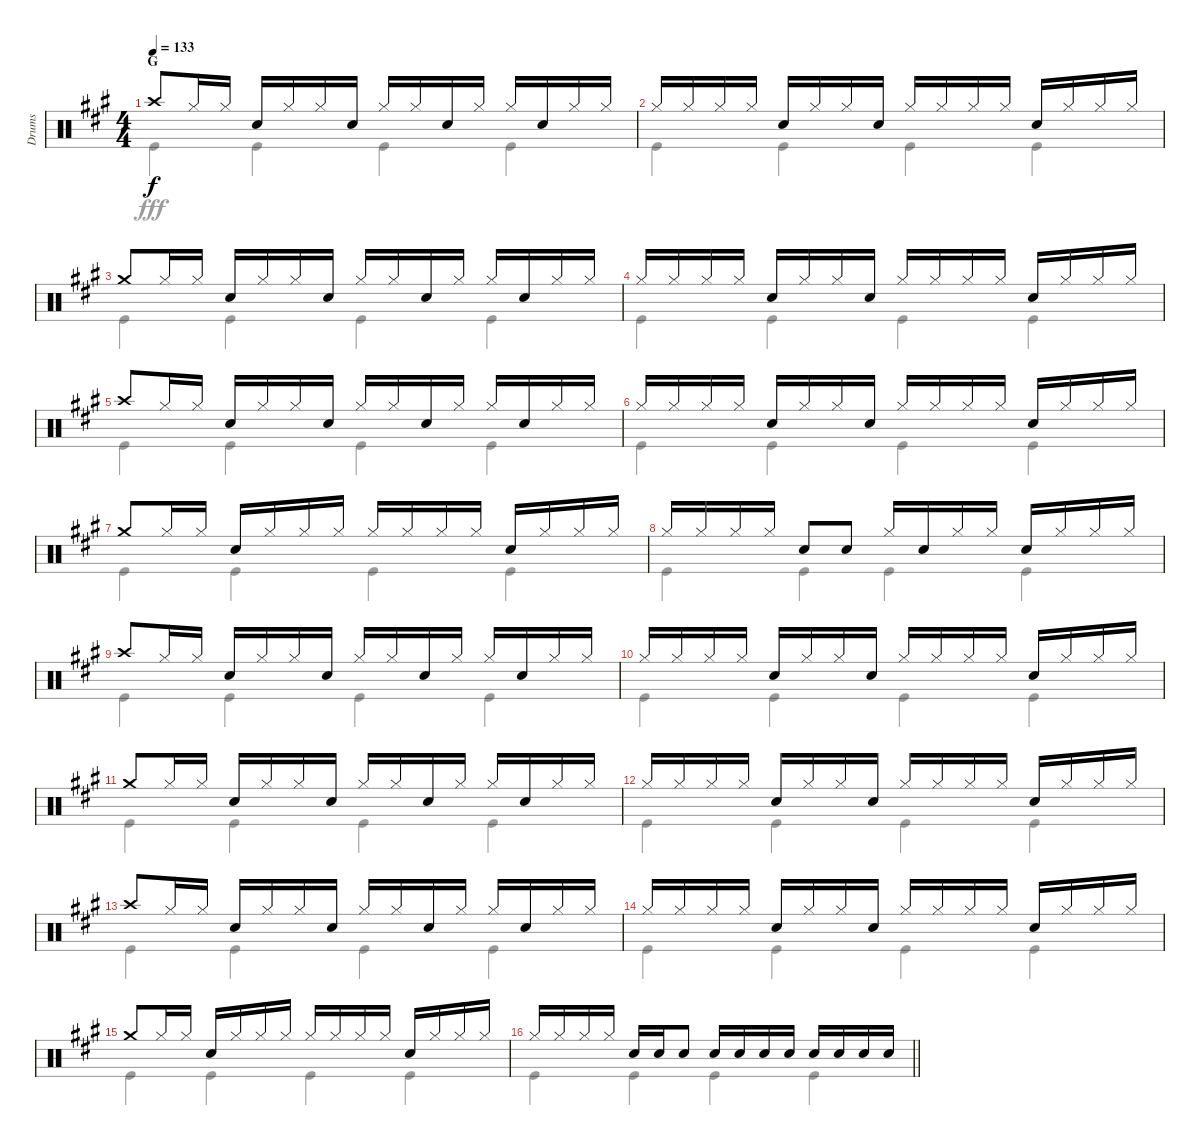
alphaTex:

\track ("Drums" "Drums") {instrument percussion}
\staff {score}
\articulation defaults
\voice
\ts (4 4)
\section ("" "G")
\tempo 133
\clef neutral
\ks a "Crash high (hit)".8{dy f} "Hi-Hat (closed)".16 "Hi-Hat (closed)".16 "Snare (hit) 2".16 "Hi-Hat (closed)".16 "Hi-Hat (closed)".16 "Snare (hit) 2".16 "Hi-Hat (closed)".16 "Hi-Hat (closed)".16 "Snare (hit) 2".16 "Hi-Hat (closed)".16 "Hi-Hat (closed)".16 "Snare (hit) 2".16 "Hi-Hat (closed)".16 "Hi-Hat (closed)".16
|
"Hi-Hat (closed)".16 "Hi-Hat (closed)".16 "Hi-Hat (closed)".16 "Hi-Hat (closed)".16 "Snare (hit) 2".16 "Hi-Hat (closed)".16 "Hi-Hat (closed)".16 "Snare (hit) 2".16 "Hi-Hat (closed)".16 "Hi-Hat (closed)".16 "Hi-Hat (closed)".16 "Hi-Hat (closed)".16 "Snare (hit) 2".16 "Hi-Hat (closed)".16 "Hi-Hat (closed)".16 "Hi-Hat (closed)".16 |
"Crash medium (hit)".8 "Hi-Hat (closed)".16 "Hi-Hat (closed)".16 "Snare (hit) 2".16 "Hi-Hat (closed)".16 "Hi-Hat (closed)".16 "Snare (hit) 2".16 "Hi-Hat (closed)".16 "Hi-Hat (closed)".16 "Snare (hit) 2".16 "Hi-Hat (closed)".16 "Hi-Hat (closed)".16 "Snare (hit) 2".16 "Hi-Hat (closed)".16 "Hi-Hat (closed)".16 |
"Hi-Hat (closed)".16 "Hi-Hat (closed)".16 "Hi-Hat (closed)".16 "Hi-Hat (closed)".16 "Snare (hit) 2".16 "Hi-Hat (closed)".16 "Hi-Hat (closed)".16 "Snare (hit) 2".16 "Hi-Hat (closed)".16 "Hi-Hat (closed)".16 "Hi-Hat (closed)".16 "Hi-Hat (closed)".16 "Snare (hit) 2".16 "Hi-Hat (closed)".16 "Hi-Hat (closed)".16 "Hi-Hat (closed)".16 |
"Crash high (hit)".8 "Hi-Hat (closed)".16 "Hi-Hat (closed)".16 "Snare (hit) 2".16 "Hi-Hat (closed)".16 "Hi-Hat (closed)".16 "Snare (hit) 2".16 "Hi-Hat (closed)".16 "Hi-Hat (closed)".16 "Snare (hit) 2".16 "Hi-Hat (closed)".16 "Hi-Hat (closed)".16 "Snare (hit) 2".16 "Hi-Hat (closed)".16 "Hi-Hat (closed)".16 |
"Hi-Hat (closed)".16 "Hi-Hat (closed)".16 "Hi-Hat (closed)".16 "Hi-Hat (closed)".16 "Snare (hit) 2".16 "Hi-Hat (closed)".16 "Hi-Hat (closed)".16 "Snare (hit) 2".16 "Hi-Hat (closed)".16 "Hi-Hat (closed)".16 "Hi-Hat (closed)".16 "Hi-Hat (closed)".16 "Snare (hit) 2".16 "Hi-Hat (closed)".16 "Hi-Hat (closed)".16 "Hi-Hat (closed)".16 |
"Crash medium (hit)".8 "Hi-Hat (closed)".16 "Hi-Hat (closed)".16 "Snare (hit) 2".16 "Hi-Hat (closed)".16 "Hi-Hat (closed)".16 "Hi-Hat (closed)".16 "Hi-Hat (closed)".16 "Hi-Hat (closed)".16 "Hi-Hat (closed)".16 "Hi-Hat (closed)".16 "Snare (hit) 2".16 "Hi-Hat (closed)".16 "Hi-Hat (closed)".16 "Hi-Hat (closed)".16 |
"Hi-Hat (closed)".16 "Hi-Hat (closed)".16 "Hi-Hat (closed)".16 "Hi-Hat (closed)".16 "Snare (hit) 2".8 "Snare (hit) 2".8 "Hi-Hat (closed)".16 "Snare (hit) 2".16 "Hi-Hat (closed)".16 "Hi-Hat (closed)".16 "Snare (hit) 2".16 "Hi-Hat (closed)".16 "Hi-Hat (closed)".16 "Hi-Hat (closed)".16 |
"Crash high (hit)".8 "Hi-Hat (closed)".16 "Hi-Hat (closed)".16 "Snare (hit) 2".16 "Hi-Hat (closed)".16 "Hi-Hat (closed)".16 "Snare (hit) 2".16 "Hi-Hat (closed)".16 "Hi-Hat (closed)".16 "Snare (hit) 2".16 "Hi-Hat (closed)".16 "Hi-Hat (closed)".16 "Snare (hit) 2".16 "Hi-Hat (closed)".16 "Hi-Hat (closed)".16 |
"Hi-Hat (closed)".16 "Hi-Hat (closed)".16 "Hi-Hat (closed)".16 "Hi-Hat (closed)".16 "Snare (hit) 2".16 "Hi-Hat (closed)".16 "Hi-Hat (closed)".16 "Snare (hit) 2".16 "Hi-Hat (closed)".16 "Hi-Hat (closed)".16 "Hi-Hat (closed)".16 "Hi-Hat (closed)".16 "Snare (hit) 2".16 "Hi-Hat (closed)".16 "Hi-Hat (closed)".16 "Hi-Hat (closed)".16 |
"Crash medium (hit)".8 "Hi-Hat (closed)".16 "Hi-Hat (closed)".16 "Snare (hit) 2".16 "Hi-Hat (closed)".16 "Hi-Hat (closed)".16 "Snare (hit) 2".16 "Hi-Hat (closed)".16 "Hi-Hat (closed)".16 "Snare (hit) 2".16 "Hi-Hat (closed)".16 "Hi-Hat (closed)".16 "Snare (hit) 2".16 "Hi-Hat (closed)".16 "Hi-Hat (closed)".16 |
"Hi-Hat (closed)".16 "Hi-Hat (closed)".16 "Hi-Hat (closed)".16 "Hi-Hat (closed)".16 "Snare (hit) 2".16 "Hi-Hat (closed)".16 "Hi-Hat (closed)".16 "Snare (hit) 2".16 "Hi-Hat (closed)".16 "Hi-Hat (closed)".16 "Hi-Hat (closed)".16 "Hi-Hat (closed)".16 "Snare (hit) 2".16 "Hi-Hat (closed)".16 "Hi-Hat (closed)".16 "Hi-Hat (closed)".16 |
"Crash high (hit)".8 "Hi-Hat (closed)".16 "Hi-Hat (closed)".16 "Snare (hit) 2".16 "Hi-Hat (closed)".16 "Hi-Hat (closed)".16 "Snare (hit) 2".16 "Hi-Hat (closed)".16 "Hi-Hat (closed)".16 "Snare (hit) 2".16 "Hi-Hat (closed)".16 "Hi-Hat (closed)".16 "Snare (hit) 2".16 "Hi-Hat (closed)".16 "Hi-Hat (closed)".16 |
"Hi-Hat (closed)".16 "Hi-Hat (closed)".16 "Hi-Hat (closed)".16 "Hi-Hat (closed)".16 "Snare (hit) 2".16 "Hi-Hat (closed)".16 "Hi-Hat (closed)".16 "Snare (hit) 2".16 "Hi-Hat (closed)".16 "Hi-Hat (closed)".16 "Hi-Hat (closed)".16 "Hi-Hat (closed)".16 "Snare (hit) 2".16 "Hi-Hat (closed)".16 "Hi-Hat (closed)".16 "Hi-Hat (closed)".16 |
"Crash medium (hit)".8 "Hi-Hat (closed)".16 "Hi-Hat (closed)".16 "Snare (hit) 2".16 "Hi-Hat (closed)".16 "Hi-Hat (closed)".16 "Hi-Hat (closed)".16 "Hi-Hat (closed)".16 "Hi-Hat (closed)".16 "Hi-Hat (closed)".16 "Hi-Hat (closed)".16 "Snare (hit) 2".16 "Hi-Hat (closed)".16 "Hi-Hat (closed)".16 "Hi-Hat (closed)".16 |
\barLineRight lightlight "Hi-Hat (closed)".16 "Hi-Hat (closed)".16 "Hi-Hat (closed)".16 "Hi-Hat (closed)".16 "Snare (hit) 2".16 "Snare (hit) 2".16 "Snare (hit) 2".8 "Snare (hit) 2".16 "Snare (hit) 2".16 "Snare (hit) 2".16 "Snare (hit) 2".16 "Snare (hit) 2".16 "Snare (hit) 2".16 "Snare (hit) 2".16 "Snare (hit) 2".16
\voice
\clef neutral
\ottava regular
\simile none
\ks a "Kick (hit)".4{dy fff} "Kick (hit)".4 "Kick (hit)".4 "Kick (hit)".4
|
"Kick (hit)".4 "Kick (hit)".4 "Kick (hit)".4 "Kick (hit)".4 |
"Kick (hit)".4 "Kick (hit)".4 "Kick (hit)".4 "Kick (hit)".4 |
"Kick (hit)".4 "Kick (hit)".4 "Kick (hit)".4 "Kick (hit)".4 |
"Kick (hit)".4 "Kick (hit)".4 "Kick (hit)".4 "Kick (hit)".4 |
"Kick (hit)".4 "Kick (hit)".4 "Kick (hit)".4 "Kick (hit)".4 |
"Kick (hit)".4 "Kick (hit)".4 "Kick (hit)".4 "Kick (hit)".4 |
"Kick (hit)".4 "Kick (hit)".4 "Kick (hit)".4 "Kick (hit)".4 |
"Kick (hit)".4 "Kick (hit)".4 "Kick (hit)".4 "Kick (hit)".4 |
"Kick (hit)".4 "Kick (hit)".4 "Kick (hit)".4 "Kick (hit)".4 |
"Kick (hit)".4 "Kick (hit)".4 "Kick (hit)".4 "Kick (hit)".4 |
"Kick (hit)".4 "Kick (hit)".4 "Kick (hit)".4 "Kick (hit)".4 |
"Kick (hit)".4 "Kick (hit)".4 "Kick (hit)".4 "Kick (hit)".4 |
"Kick (hit)".4 "Kick (hit)".4 "Kick (hit)".4 "Kick (hit)".4 |
"Kick (hit)".4 "Kick (hit)".4 "Kick (hit)".4 "Kick (hit)".4 |
\barLineRight lightlight "Kick (hit)".4 "Kick (hit)".4 "Kick (hit)".4 "Kick (hit)".4
